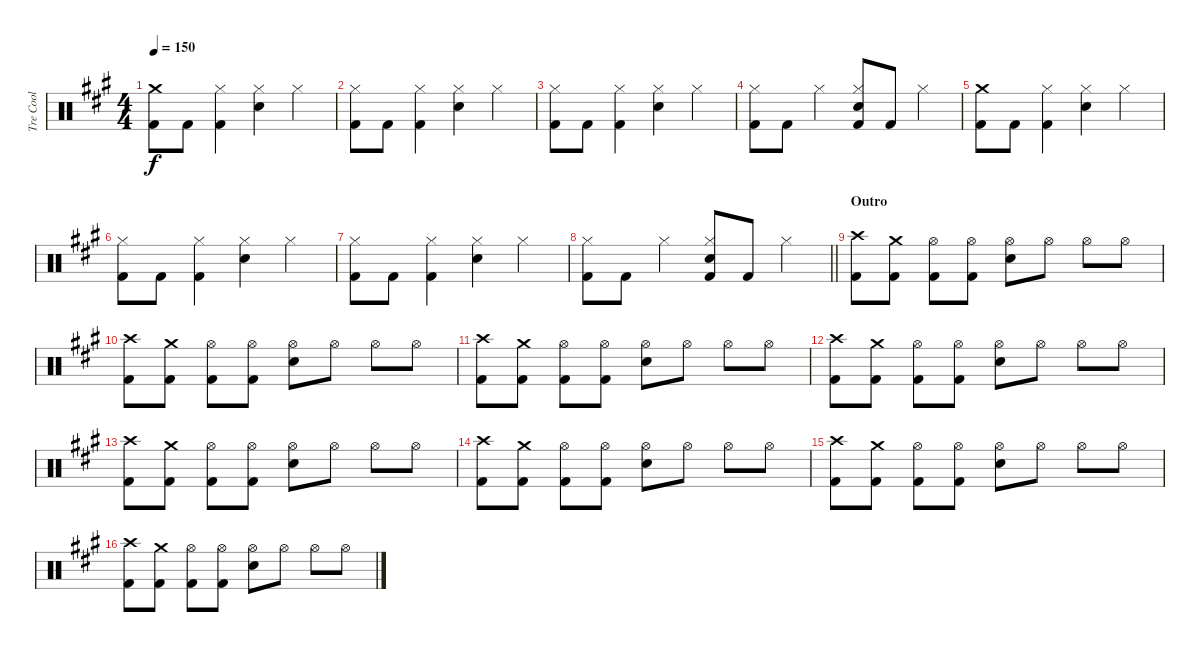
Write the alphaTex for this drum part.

\track ("Tre Cool" "Tre Cool") {instrument percussion}
\staff {score}
\articulation defaults
\ts (4 4)
\tempo 150
\clef neutral
\ks a
("Crash medium (hit)" "Kick (hit) 2").8{dy f} "Kick (hit) 2".8 ("Hi-Hat (closed)" "Kick (hit) 2").4 ("Hi-Hat (closed)" "Snare (hit) 2").4 "Hi-Hat (closed)".4 |
("Hi-Hat (closed)" "Kick (hit) 2").8 "Kick (hit) 2".8 ("Hi-Hat (closed)" "Kick (hit) 2").4 ("Hi-Hat (closed)" "Snare (hit) 2").4 "Hi-Hat (closed)".4 |
("Hi-Hat (closed)" "Kick (hit) 2").8 "Kick (hit) 2".8 ("Hi-Hat (closed)" "Kick (hit) 2").4 ("Hi-Hat (closed)" "Snare (hit) 2").4 "Hi-Hat (closed)".4 |
("Hi-Hat (closed)" "Kick (hit) 2").8 "Kick (hit) 2".8 "Hi-Hat (closed)".4 ("Hi-Hat (closed)" "Snare (hit) 2" "Kick (hit) 2").8 "Kick (hit) 2".8 "Hi-Hat (closed)".4 |
("Crash medium (hit)" "Kick (hit) 2").8 "Kick (hit) 2".8 ("Hi-Hat (closed)" "Kick (hit) 2").4 ("Hi-Hat (closed)" "Snare (hit) 2").4 "Hi-Hat (closed)".4 |
("Hi-Hat (closed)" "Kick (hit) 2").8 "Kick (hit) 2".8 ("Hi-Hat (closed)" "Kick (hit) 2").4 ("Hi-Hat (closed)" "Snare (hit) 2").4 "Hi-Hat (closed)".4 |
("Hi-Hat (closed)" "Kick (hit) 2").8 "Kick (hit) 2".8 ("Hi-Hat (closed)" "Kick (hit) 2").4 ("Hi-Hat (closed)" "Snare (hit) 2").4 "Hi-Hat (closed)".4 |
\barLineRight lightlight
("Hi-Hat (closed)" "Kick (hit) 2").8 "Kick (hit) 2".8 "Hi-Hat (closed)".4 ("Hi-Hat (closed)" "Snare (hit) 2" "Kick (hit) 2").8 "Kick (hit) 2".8 "Hi-Hat (closed)".4 |
\section ("" "Outro")
("Crash high (hit)" "Kick (hit) 2").8 ("Crash medium (hit)" "Kick (hit) 2").8 ("Hi-Hat (open)" "Kick (hit) 2").8 ("Hi-Hat (open)" "Kick (hit) 2").8 ("Hi-Hat (open)" "Snare (hit) 2").8 "Hi-Hat (open)".8 "Hi-Hat (open)".8 "Hi-Hat (open)".8 |
("Crash high (hit)" "Kick (hit) 2").8 ("Crash medium (hit)" "Kick (hit) 2").8 ("Hi-Hat (open)" "Kick (hit) 2").8 ("Hi-Hat (open)" "Kick (hit) 2").8 ("Hi-Hat (open)" "Snare (hit) 2").8 "Hi-Hat (open)".8 "Hi-Hat (open)".8 "Hi-Hat (open)".8 |
("Crash high (hit)" "Kick (hit) 2").8 ("Crash medium (hit)" "Kick (hit) 2").8 ("Hi-Hat (open)" "Kick (hit) 2").8 ("Hi-Hat (open)" "Kick (hit) 2").8 ("Hi-Hat (open)" "Snare (hit) 2").8 "Hi-Hat (open)".8 "Hi-Hat (open)".8 "Hi-Hat (open)".8 |
("Crash high (hit)" "Kick (hit) 2").8 ("Crash medium (hit)" "Kick (hit) 2").8 ("Hi-Hat (open)" "Kick (hit) 2").8 ("Hi-Hat (open)" "Kick (hit) 2").8 ("Hi-Hat (open)" "Snare (hit) 2").8 "Hi-Hat (open)".8 "Hi-Hat (open)".8 "Hi-Hat (open)".8 |
("Crash high (hit)" "Kick (hit) 2").8 ("Crash medium (hit)" "Kick (hit) 2").8 ("Hi-Hat (open)" "Kick (hit) 2").8 ("Hi-Hat (open)" "Kick (hit) 2").8 ("Hi-Hat (open)" "Snare (hit) 2").8 "Hi-Hat (open)".8 "Hi-Hat (open)".8 "Hi-Hat (open)".8 |
("Crash high (hit)" "Kick (hit) 2").8 ("Crash medium (hit)" "Kick (hit) 2").8 ("Hi-Hat (open)" "Kick (hit) 2").8 ("Hi-Hat (open)" "Kick (hit) 2").8 ("Hi-Hat (open)" "Snare (hit) 2").8 "Hi-Hat (open)".8 "Hi-Hat (open)".8 "Hi-Hat (open)".8 |
("Crash high (hit)" "Kick (hit) 2").8 ("Crash medium (hit)" "Kick (hit) 2").8 ("Hi-Hat (open)" "Kick (hit) 2").8 ("Hi-Hat (open)" "Kick (hit) 2").8 ("Hi-Hat (open)" "Snare (hit) 2").8 "Hi-Hat (open)".8 "Hi-Hat (open)".8 "Hi-Hat (open)".8 |
("Crash high (hit)" "Kick (hit) 2").8 ("Crash medium (hit)" "Kick (hit) 2").8 ("Hi-Hat (open)" "Kick (hit) 2").8 ("Hi-Hat (open)" "Kick (hit) 2").8 ("Hi-Hat (open)" "Snare (hit) 2").8 "Hi-Hat (open)".8 "Hi-Hat (open)".8 "Hi-Hat (open)".8
